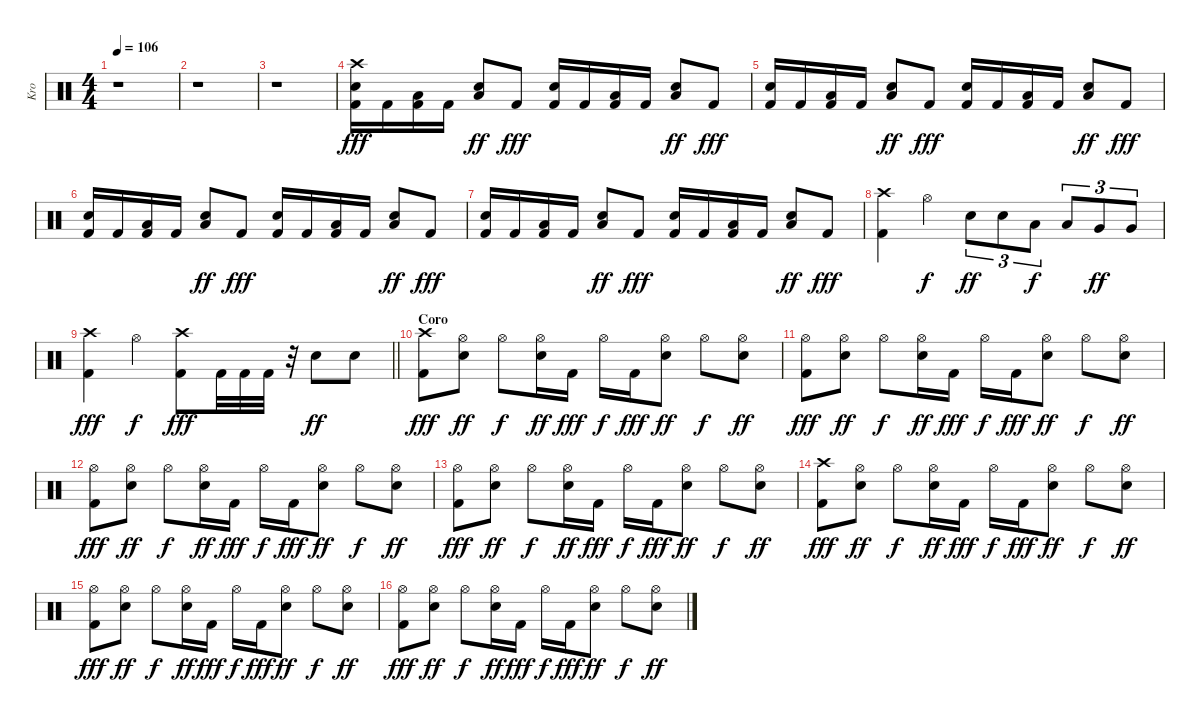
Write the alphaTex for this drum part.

\track ("Kro" "Kro") {instrument percussion}
\staff {score}
\articulation defaults
\ts (4 4)
\tempo 106
\clef neutral
\ks c
r.1{dy fff} |
r.1 |
r.1 |
("Crash high (hit)" "Electric Snare (hit)" "Kick (hit) 2").16 "Kick (hit) 2".16 ("Low Floor Tom (hit)" "Kick (hit) 2").16 "Kick (hit) 2".16 ("Low Floor Tom (hit)" "Electric Snare (hit)").8{dy ff} "Kick (hit) 2".8{dy fff} ("Electric Snare (hit)" "Kick (hit) 2").16 "Kick (hit) 2".16 ("Low Floor Tom (hit)" "Kick (hit) 2").16 "Kick (hit) 2".16 ("Low Floor Tom (hit)" "Electric Snare (hit)").8{dy ff} "Kick (hit) 2".8{dy fff} |
("Electric Snare (hit)" "Kick (hit) 2").16 "Kick (hit) 2".16 ("Low Floor Tom (hit)" "Kick (hit) 2").16 "Kick (hit) 2".16 ("Low Floor Tom (hit)" "Electric Snare (hit)").8{dy ff} "Kick (hit) 2".8{dy fff} ("Electric Snare (hit)" "Kick (hit) 2").16 "Kick (hit) 2".16 ("Low Floor Tom (hit)" "Kick (hit) 2").16 "Kick (hit) 2".16 ("Low Floor Tom (hit)" "Electric Snare (hit)").8{dy ff} "Kick (hit) 2".8{dy fff} |
("Electric Snare (hit)" "Kick (hit) 2").16 "Kick (hit) 2".16 ("Low Floor Tom (hit)" "Kick (hit) 2").16 "Kick (hit) 2".16 ("Low Floor Tom (hit)" "Electric Snare (hit)").8{dy ff} "Kick (hit) 2".8{dy fff} ("Electric Snare (hit)" "Kick (hit) 2").16 "Kick (hit) 2".16 ("Low Floor Tom (hit)" "Kick (hit) 2").16 "Kick (hit) 2".16 ("Low Floor Tom (hit)" "Electric Snare (hit)").8{dy ff} "Kick (hit) 2".8{dy fff} |
("Electric Snare (hit)" "Kick (hit) 2").16 "Kick (hit) 2".16 ("Low Floor Tom (hit)" "Kick (hit) 2").16 "Kick (hit) 2".16 ("Low Floor Tom (hit)" "Electric Snare (hit)").8{dy ff} "Kick (hit) 2".8{dy fff} ("Electric Snare (hit)" "Kick (hit) 2").16 "Kick (hit) 2".16 ("Low Floor Tom (hit)" "Kick (hit) 2").16 "Kick (hit) 2".16 ("Low Floor Tom (hit)" "Electric Snare (hit)").8{dy ff} "Kick (hit) 2".8{dy fff} |
("Crash high (hit)" "Kick (hit) 2").4 "Hi-Hat (open)".4{dy f} "Electric Snare (hit)".8{tu (3 2) dy ff} "Electric Snare (hit)".8{tu (3 2)} "Low Tom (hit)".8{tu (3 2) dy f} "Low Tom (hit)".8{tu (3 2)} "Very Low Tom (hit)".8{tu (3 2) dy ff} "Very Low Tom (hit)".8{tu (3 2)} |
\barLineRight lightlight
("Crash high (hit)" "Kick (hit) 2").4{dy fff} "Hi-Hat (open)".4{dy f} ("Crash high (hit)" "Kick (hit) 2").8{dy fff} "Kick (hit) 2".32 "Kick (hit) 2".32 "Kick (hit) 2".32 r.32 "Electric Snare (hit)".8{dy ff} "Electric Snare (hit)".8 |
\section ("" "Coro")
("Crash high (hit)" "Kick (hit) 2").8{dy fff} ("Hi-Hat (open)" "Electric Snare (hit)").8{dy ff} "Hi-Hat (open)".8{dy f} ("Hi-Hat (open)" "Electric Snare (hit)").16{dy ff} "Kick (hit) 2".16{dy fff} "Hi-Hat (open)".16{dy f} "Kick (hit) 2".16{dy fff} ("Hi-Hat (open)" "Electric Snare (hit)").8{dy ff} "Hi-Hat (open)".8{dy f} ("Hi-Hat (open)" "Electric Snare (hit)").8{dy ff} |
("Hi-Hat (open)" "Kick (hit) 2").8{dy fff} ("Hi-Hat (open)" "Electric Snare (hit)").8{dy ff} "Hi-Hat (open)".8{dy f} ("Hi-Hat (open)" "Electric Snare (hit)").16{dy ff} "Kick (hit) 2".16{dy fff} "Hi-Hat (open)".16{dy f} "Kick (hit) 2".16{dy fff} ("Hi-Hat (open)" "Electric Snare (hit)").8{dy ff} "Hi-Hat (open)".8{dy f} ("Hi-Hat (open)" "Electric Snare (hit)").8{dy ff} |
("Hi-Hat (open)" "Kick (hit) 2").8{dy fff} ("Hi-Hat (open)" "Electric Snare (hit)").8{dy ff} "Hi-Hat (open)".8{dy f} ("Hi-Hat (open)" "Electric Snare (hit)").16{dy ff} "Kick (hit) 2".16{dy fff} "Hi-Hat (open)".16{dy f} "Kick (hit) 2".16{dy fff} ("Hi-Hat (open)" "Electric Snare (hit)").8{dy ff} "Hi-Hat (open)".8{dy f} ("Hi-Hat (open)" "Electric Snare (hit)").8{dy ff} |
("Hi-Hat (open)" "Kick (hit) 2").8{dy fff} ("Hi-Hat (open)" "Electric Snare (hit)").8{dy ff} "Hi-Hat (open)".8{dy f} ("Hi-Hat (open)" "Electric Snare (hit)").16{dy ff} "Kick (hit) 2".16{dy fff} "Hi-Hat (open)".16{dy f} "Kick (hit) 2".16{dy fff} ("Hi-Hat (open)" "Electric Snare (hit)").8{dy ff} "Hi-Hat (open)".8{dy f} ("Hi-Hat (open)" "Electric Snare (hit)").8{dy ff} |
("Crash high (hit)" "Kick (hit) 2").8{dy fff} ("Hi-Hat (open)" "Electric Snare (hit)").8{dy ff} "Hi-Hat (open)".8{dy f} ("Hi-Hat (open)" "Electric Snare (hit)").16{dy ff} "Kick (hit) 2".16{dy fff} "Hi-Hat (open)".16{dy f} "Kick (hit) 2".16{dy fff} ("Hi-Hat (open)" "Electric Snare (hit)").8{dy ff} "Hi-Hat (open)".8{dy f} ("Hi-Hat (open)" "Electric Snare (hit)").8{dy ff} |
("Hi-Hat (open)" "Kick (hit) 2").8{dy fff} ("Hi-Hat (open)" "Electric Snare (hit)").8{dy ff} "Hi-Hat (open)".8{dy f} ("Hi-Hat (open)" "Electric Snare (hit)").16{dy ff} "Kick (hit) 2".16{dy fff} "Hi-Hat (open)".16{dy f} "Kick (hit) 2".16{dy fff} ("Hi-Hat (open)" "Electric Snare (hit)").8{dy ff} "Hi-Hat (open)".8{dy f} ("Hi-Hat (open)" "Electric Snare (hit)").8{dy ff} |
("Hi-Hat (open)" "Kick (hit) 2").8{dy fff} ("Hi-Hat (open)" "Electric Snare (hit)").8{dy ff} "Hi-Hat (open)".8{dy f} ("Hi-Hat (open)" "Electric Snare (hit)").16{dy ff} "Kick (hit) 2".16{dy fff} "Hi-Hat (open)".16{dy f} "Kick (hit) 2".16{dy fff} ("Hi-Hat (open)" "Electric Snare (hit)").8{dy ff} "Hi-Hat (open)".8{dy f} ("Hi-Hat (open)" "Electric Snare (hit)").8{dy ff}
